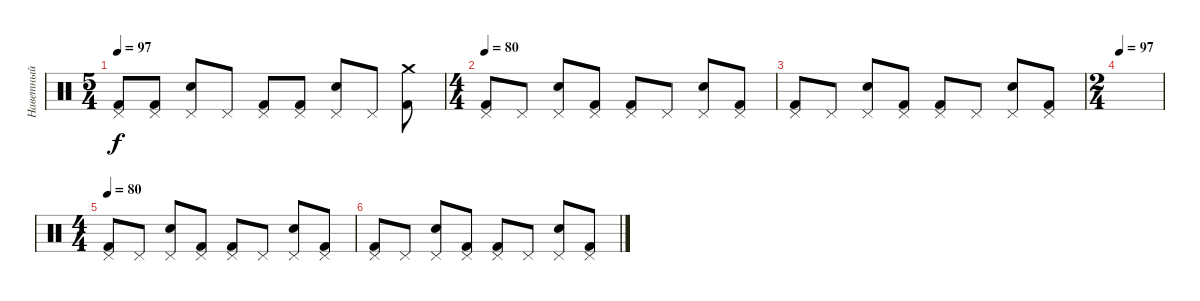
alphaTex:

\track ("Наветный" "Наветный") {instrument percussion}
\staff {score}
\articulation defaults
\ts (5 4)
\tempo 97
\clef neutral
\ks c
("Pedal Hi-Hat (hit)" "Kick (hit) 2").8{dy f} ("Pedal Hi-Hat (hit)" "Kick (hit) 2").8 ("Pedal Hi-Hat (hit)" "Electric Snare (hit)").8 "Pedal Hi-Hat (hit)".8 ("Pedal Hi-Hat (hit)" "Kick (hit) 2").8 ("Pedal Hi-Hat (hit)" "Kick (hit) 2").8 ("Pedal Hi-Hat (hit)" "Electric Snare (hit)").8 "Pedal Hi-Hat (hit)".8 ("Crash medium (hit)" "Kick (hit) 2").8 |
\ts (4 4)
\tempo 80
("Pedal Hi-Hat (hit)" "Kick (hit) 2").8 "Pedal Hi-Hat (hit)".8 ("Pedal Hi-Hat (hit)" "Electric Snare (hit)").8 ("Pedal Hi-Hat (hit)" "Kick (hit) 2").8 ("Pedal Hi-Hat (hit)" "Kick (hit) 2").8 "Pedal Hi-Hat (hit)".8 ("Pedal Hi-Hat (hit)" "Electric Snare (hit)").8 ("Pedal Hi-Hat (hit)" "Kick (hit) 2").8 |
("Pedal Hi-Hat (hit)" "Kick (hit) 2").8 "Pedal Hi-Hat (hit)".8 ("Pedal Hi-Hat (hit)" "Electric Snare (hit)").8 ("Pedal Hi-Hat (hit)" "Kick (hit) 2").8 ("Pedal Hi-Hat (hit)" "Kick (hit) 2").8 "Pedal Hi-Hat (hit)".8 ("Pedal Hi-Hat (hit)" "Electric Snare (hit)").8 ("Pedal Hi-Hat (hit)" "Kick (hit) 2").8 |
\ts (2 4)
\tempo 97
|
\ts (4 4)
\tempo 80
("Pedal Hi-Hat (hit)" "Kick (hit) 2").8 "Pedal Hi-Hat (hit)".8 ("Pedal Hi-Hat (hit)" "Electric Snare (hit)").8 ("Pedal Hi-Hat (hit)" "Kick (hit) 2").8 ("Pedal Hi-Hat (hit)" "Kick (hit) 2").8 "Pedal Hi-Hat (hit)".8 ("Pedal Hi-Hat (hit)" "Electric Snare (hit)").8 ("Pedal Hi-Hat (hit)" "Kick (hit) 2").8 |
("Pedal Hi-Hat (hit)" "Kick (hit) 2").8 "Pedal Hi-Hat (hit)".8 ("Pedal Hi-Hat (hit)" "Electric Snare (hit)").8 ("Pedal Hi-Hat (hit)" "Kick (hit) 2").8 ("Pedal Hi-Hat (hit)" "Kick (hit) 2").8 "Pedal Hi-Hat (hit)".8 ("Pedal Hi-Hat (hit)" "Electric Snare (hit)").8 ("Pedal Hi-Hat (hit)" "Kick (hit) 2").8
